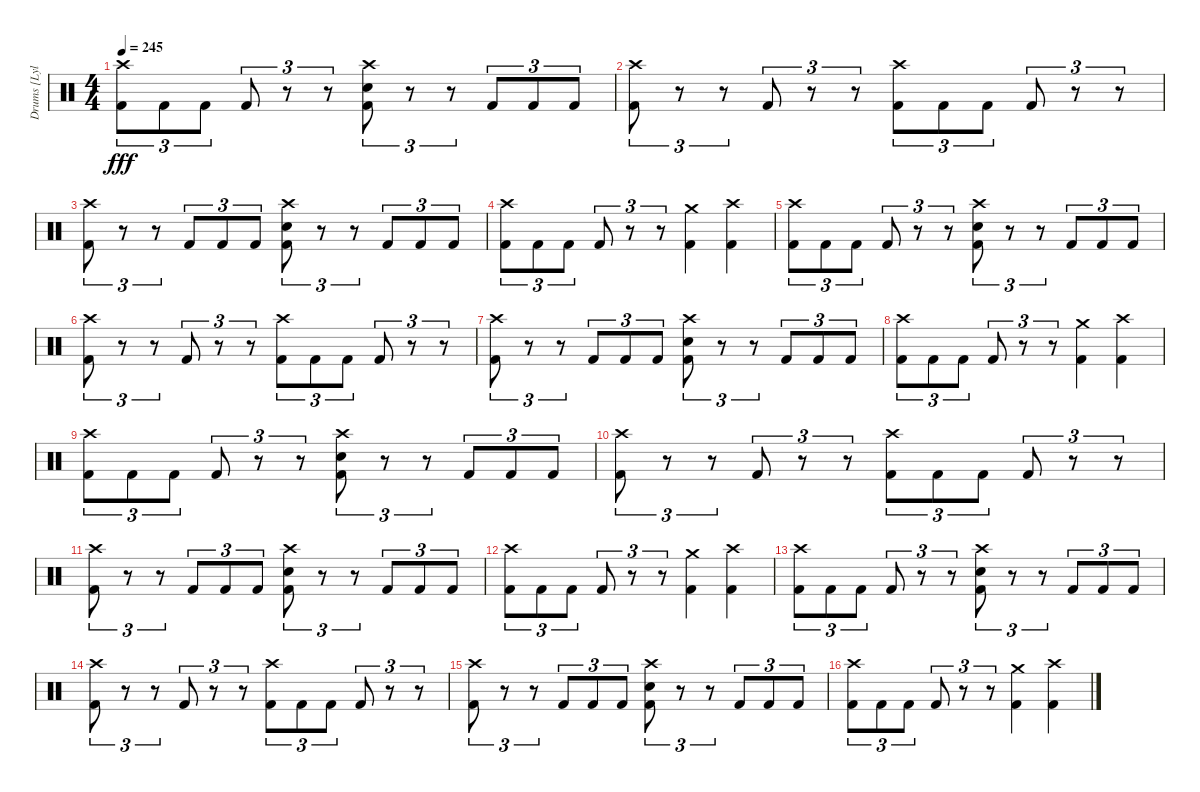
\track ("Drums [Lyle Cooper]" "Drums [Lyl") {instrument percussion}
\staff {score}
\articulation defaults
\ts (4 4)
\tempo 245
\clef neutral
\ks c
("Crash high (hit)" "Kick (hit) 2").8{tu (3 2) dy fff} "Kick (hit) 2".8{tu (3 2)} "Kick (hit) 2".8{tu (3 2)} "Kick (hit) 2".8{tu (3 2)} r.8{tu (3 2)} r.8{tu (3 2)} ("Crash high (hit)" "Electric Snare (hit)" "Kick (hit) 2").8{tu (3 2)} r.8{tu (3 2)} r.8{tu (3 2)} "Kick (hit) 2".8{tu (3 2)} "Kick (hit) 2".8{tu (3 2)} "Kick (hit) 2".8{tu (3 2)} |
("Crash high (hit)" "Kick (hit) 2").8{tu (3 2)} r.8{tu (3 2)} r.8{tu (3 2)} "Kick (hit) 2".8{tu (3 2)} r.8{tu (3 2)} r.8{tu (3 2)} ("Crash high (hit)" "Kick (hit) 2").8{tu (3 2)} "Kick (hit) 2".8{tu (3 2)} "Kick (hit) 2".8{tu (3 2)} "Kick (hit) 2".8{tu (3 2)} r.8{tu (3 2)} r.8{tu (3 2)} |
("Crash high (hit)" "Kick (hit) 2").8{tu (3 2)} r.8{tu (3 2)} r.8{tu (3 2)} "Kick (hit) 2".8{tu (3 2)} "Kick (hit) 2".8{tu (3 2)} "Kick (hit) 2".8{tu (3 2)} ("Crash high (hit)" "Electric Snare (hit)" "Kick (hit) 2").8{tu (3 2)} r.8{tu (3 2)} r.8{tu (3 2)} "Kick (hit) 2".8{tu (3 2)} "Kick (hit) 2".8{tu (3 2)} "Kick (hit) 2".8{tu (3 2)} |
("Crash high (hit)" "Kick (hit) 2").8{tu (3 2)} "Kick (hit) 2".8{tu (3 2)} "Kick (hit) 2".8{tu (3 2)} "Kick (hit) 2".8{tu (3 2)} r.8{tu (3 2)} r.8{tu (3 2)} ("Crash medium (hit)" "Kick (hit) 2").4 ("Crash high (hit)" "Kick (hit) 2").4 |
("Crash high (hit)" "Kick (hit) 2").8{tu (3 2)} "Kick (hit) 2".8{tu (3 2)} "Kick (hit) 2".8{tu (3 2)} "Kick (hit) 2".8{tu (3 2)} r.8{tu (3 2)} r.8{tu (3 2)} ("Crash high (hit)" "Electric Snare (hit)" "Kick (hit) 2").8{tu (3 2)} r.8{tu (3 2)} r.8{tu (3 2)} "Kick (hit) 2".8{tu (3 2)} "Kick (hit) 2".8{tu (3 2)} "Kick (hit) 2".8{tu (3 2)} |
("Crash high (hit)" "Kick (hit) 2").8{tu (3 2)} r.8{tu (3 2)} r.8{tu (3 2)} "Kick (hit) 2".8{tu (3 2)} r.8{tu (3 2)} r.8{tu (3 2)} ("Crash high (hit)" "Kick (hit) 2").8{tu (3 2)} "Kick (hit) 2".8{tu (3 2)} "Kick (hit) 2".8{tu (3 2)} "Kick (hit) 2".8{tu (3 2)} r.8{tu (3 2)} r.8{tu (3 2)} |
("Crash high (hit)" "Kick (hit) 2").8{tu (3 2)} r.8{tu (3 2)} r.8{tu (3 2)} "Kick (hit) 2".8{tu (3 2)} "Kick (hit) 2".8{tu (3 2)} "Kick (hit) 2".8{tu (3 2)} ("Crash high (hit)" "Electric Snare (hit)" "Kick (hit) 2").8{tu (3 2)} r.8{tu (3 2)} r.8{tu (3 2)} "Kick (hit) 2".8{tu (3 2)} "Kick (hit) 2".8{tu (3 2)} "Kick (hit) 2".8{tu (3 2)} |
("Crash high (hit)" "Kick (hit) 2").8{tu (3 2)} "Kick (hit) 2".8{tu (3 2)} "Kick (hit) 2".8{tu (3 2)} "Kick (hit) 2".8{tu (3 2)} r.8{tu (3 2)} r.8{tu (3 2)} ("Crash medium (hit)" "Kick (hit) 2").4 ("Crash high (hit)" "Kick (hit) 2").4 |
("Crash high (hit)" "Kick (hit) 2").8{tu (3 2)} "Kick (hit) 2".8{tu (3 2)} "Kick (hit) 2".8{tu (3 2)} "Kick (hit) 2".8{tu (3 2)} r.8{tu (3 2)} r.8{tu (3 2)} ("Crash high (hit)" "Electric Snare (hit)" "Kick (hit) 2").8{tu (3 2)} r.8{tu (3 2)} r.8{tu (3 2)} "Kick (hit) 2".8{tu (3 2)} "Kick (hit) 2".8{tu (3 2)} "Kick (hit) 2".8{tu (3 2)} |
("Crash high (hit)" "Kick (hit) 2").8{tu (3 2)} r.8{tu (3 2)} r.8{tu (3 2)} "Kick (hit) 2".8{tu (3 2)} r.8{tu (3 2)} r.8{tu (3 2)} ("Crash high (hit)" "Kick (hit) 2").8{tu (3 2)} "Kick (hit) 2".8{tu (3 2)} "Kick (hit) 2".8{tu (3 2)} "Kick (hit) 2".8{tu (3 2)} r.8{tu (3 2)} r.8{tu (3 2)} |
("Crash high (hit)" "Kick (hit) 2").8{tu (3 2)} r.8{tu (3 2)} r.8{tu (3 2)} "Kick (hit) 2".8{tu (3 2)} "Kick (hit) 2".8{tu (3 2)} "Kick (hit) 2".8{tu (3 2)} ("Crash high (hit)" "Electric Snare (hit)" "Kick (hit) 2").8{tu (3 2)} r.8{tu (3 2)} r.8{tu (3 2)} "Kick (hit) 2".8{tu (3 2)} "Kick (hit) 2".8{tu (3 2)} "Kick (hit) 2".8{tu (3 2)} |
("Crash high (hit)" "Kick (hit) 2").8{tu (3 2)} "Kick (hit) 2".8{tu (3 2)} "Kick (hit) 2".8{tu (3 2)} "Kick (hit) 2".8{tu (3 2)} r.8{tu (3 2)} r.8{tu (3 2)} ("Crash medium (hit)" "Kick (hit) 2").4 ("Crash high (hit)" "Kick (hit) 2").4 |
("Crash high (hit)" "Kick (hit) 2").8{tu (3 2)} "Kick (hit) 2".8{tu (3 2)} "Kick (hit) 2".8{tu (3 2)} "Kick (hit) 2".8{tu (3 2)} r.8{tu (3 2)} r.8{tu (3 2)} ("Crash high (hit)" "Electric Snare (hit)" "Kick (hit) 2").8{tu (3 2)} r.8{tu (3 2)} r.8{tu (3 2)} "Kick (hit) 2".8{tu (3 2)} "Kick (hit) 2".8{tu (3 2)} "Kick (hit) 2".8{tu (3 2)} |
("Crash high (hit)" "Kick (hit) 2").8{tu (3 2)} r.8{tu (3 2)} r.8{tu (3 2)} "Kick (hit) 2".8{tu (3 2)} r.8{tu (3 2)} r.8{tu (3 2)} ("Crash high (hit)" "Kick (hit) 2").8{tu (3 2)} "Kick (hit) 2".8{tu (3 2)} "Kick (hit) 2".8{tu (3 2)} "Kick (hit) 2".8{tu (3 2)} r.8{tu (3 2)} r.8{tu (3 2)} |
("Crash high (hit)" "Kick (hit) 2").8{tu (3 2)} r.8{tu (3 2)} r.8{tu (3 2)} "Kick (hit) 2".8{tu (3 2)} "Kick (hit) 2".8{tu (3 2)} "Kick (hit) 2".8{tu (3 2)} ("Crash high (hit)" "Electric Snare (hit)" "Kick (hit) 2").8{tu (3 2)} r.8{tu (3 2)} r.8{tu (3 2)} "Kick (hit) 2".8{tu (3 2)} "Kick (hit) 2".8{tu (3 2)} "Kick (hit) 2".8{tu (3 2)} |
("Crash high (hit)" "Kick (hit) 2").8{tu (3 2)} "Kick (hit) 2".8{tu (3 2)} "Kick (hit) 2".8{tu (3 2)} "Kick (hit) 2".8{tu (3 2)} r.8{tu (3 2)} r.8{tu (3 2)} ("Crash medium (hit)" "Kick (hit) 2").4 ("Crash high (hit)" "Kick (hit) 2").4
